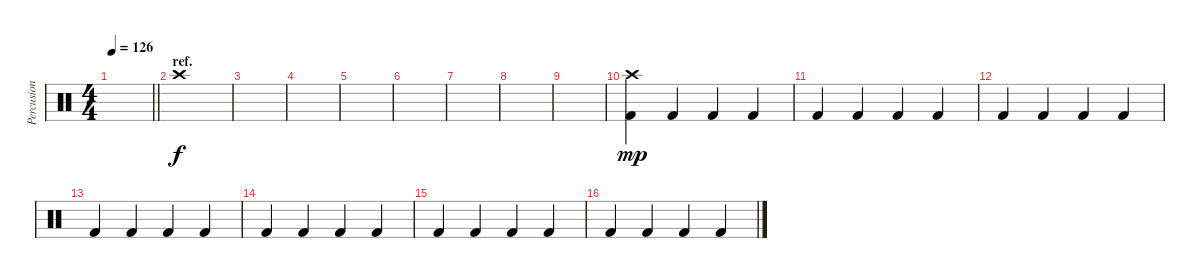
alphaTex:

\track ("Percusion" "Percusion") {instrument percussion}
\staff {score}
\articulation defaults
\ts (4 4)
\tempo 126
\clef neutral
\barLineRight lightlight
\ks c
|
\section ("" "ref.")
"Crash high (hit)".1 |
|
|
|
|
|
|
|
("Crash high (hit)" "Kick (hit) 2").4{dy mp} "Kick (hit) 2".4 "Kick (hit) 2".4 "Kick (hit) 2".4 |
"Kick (hit) 2".4 "Kick (hit) 2".4 "Kick (hit) 2".4 "Kick (hit) 2".4 |
"Kick (hit) 2".4 "Kick (hit) 2".4 "Kick (hit) 2".4 "Kick (hit) 2".4 |
"Kick (hit) 2".4 "Kick (hit) 2".4 "Kick (hit) 2".4 "Kick (hit) 2".4 |
"Kick (hit) 2".4 "Kick (hit) 2".4 "Kick (hit) 2".4 "Kick (hit) 2".4 |
"Kick (hit) 2".4 "Kick (hit) 2".4 "Kick (hit) 2".4 "Kick (hit) 2".4 |
"Kick (hit) 2".4 "Kick (hit) 2".4 "Kick (hit) 2".4 "Kick (hit) 2".4
